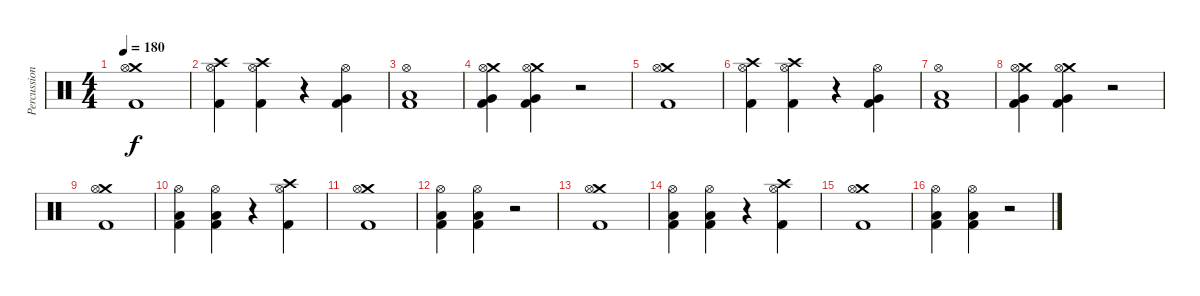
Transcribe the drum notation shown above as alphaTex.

\track ("Percussion" "Percussion") {instrument percussion}
\staff {score}
\articulation defaults
\ts (4 4)
\tempo 180
\clef neutral
\ks c
("Crash medium (hit)" "Hi-Hat (open)" "Kick (hit) 2").1{dy f} |
("Crash high (hit)" "Hi-Hat (open)" "Kick (hit) 2").4 ("Crash high (hit)" "Hi-Hat (open)" "Kick (hit) 2").4 r.4 ("Very Low Tom (hit)" "Hi-Hat (open)" "Kick (hit) 2").4 |
("Low Tom (hit)" "Hi-Hat (open)" "Kick (hit) 2").1 |
("Crash medium (hit)" "Very Low Tom (hit)" "Hi-Hat (open)" "Kick (hit) 2").4 ("Crash medium (hit)" "Very Low Tom (hit)" "Hi-Hat (open)" "Kick (hit) 2").4 r.2 |
("Crash medium (hit)" "Hi-Hat (open)" "Kick (hit) 2").1 |
("Crash high (hit)" "Hi-Hat (open)" "Kick (hit) 2").4 ("Crash high (hit)" "Hi-Hat (open)" "Kick (hit) 2").4 r.4 ("Very Low Tom (hit)" "Hi-Hat (open)" "Kick (hit) 2").4 |
("Low Tom (hit)" "Hi-Hat (open)" "Kick (hit) 2").1 |
("Crash medium (hit)" "Very Low Tom (hit)" "Hi-Hat (open)" "Kick (hit) 2").4 ("Crash medium (hit)" "Very Low Tom (hit)" "Hi-Hat (open)" "Kick (hit) 2").4 r.2 |
("Crash medium (hit)" "Hi-Hat (open)" "Kick (hit) 2").1 |
("Low Tom (hit)" "Hi-Hat (open)" "Kick (hit) 2").4 ("Low Tom (hit)" "Hi-Hat (open)" "Kick (hit) 2").4 r.4 ("Crash high (hit)" "Hi-Hat (open)" "Kick (hit) 2").4 |
("Crash medium (hit)" "Hi-Hat (open)" "Kick (hit) 2").1 |
("Low Tom (hit)" "Hi-Hat (open)" "Kick (hit) 2").4 ("Low Tom (hit)" "Hi-Hat (open)" "Kick (hit) 2").4 r.2 |
("Crash medium (hit)" "Hi-Hat (open)" "Kick (hit) 2").1 |
("Low Tom (hit)" "Hi-Hat (open)" "Kick (hit) 2").4 ("Low Tom (hit)" "Hi-Hat (open)" "Kick (hit) 2").4 r.4 ("Crash high (hit)" "Hi-Hat (open)" "Kick (hit) 2").4 |
("Crash medium (hit)" "Hi-Hat (open)" "Kick (hit) 2").1 |
("Low Tom (hit)" "Hi-Hat (open)" "Kick (hit) 2").4 ("Low Tom (hit)" "Hi-Hat (open)" "Kick (hit) 2").4 r.2
